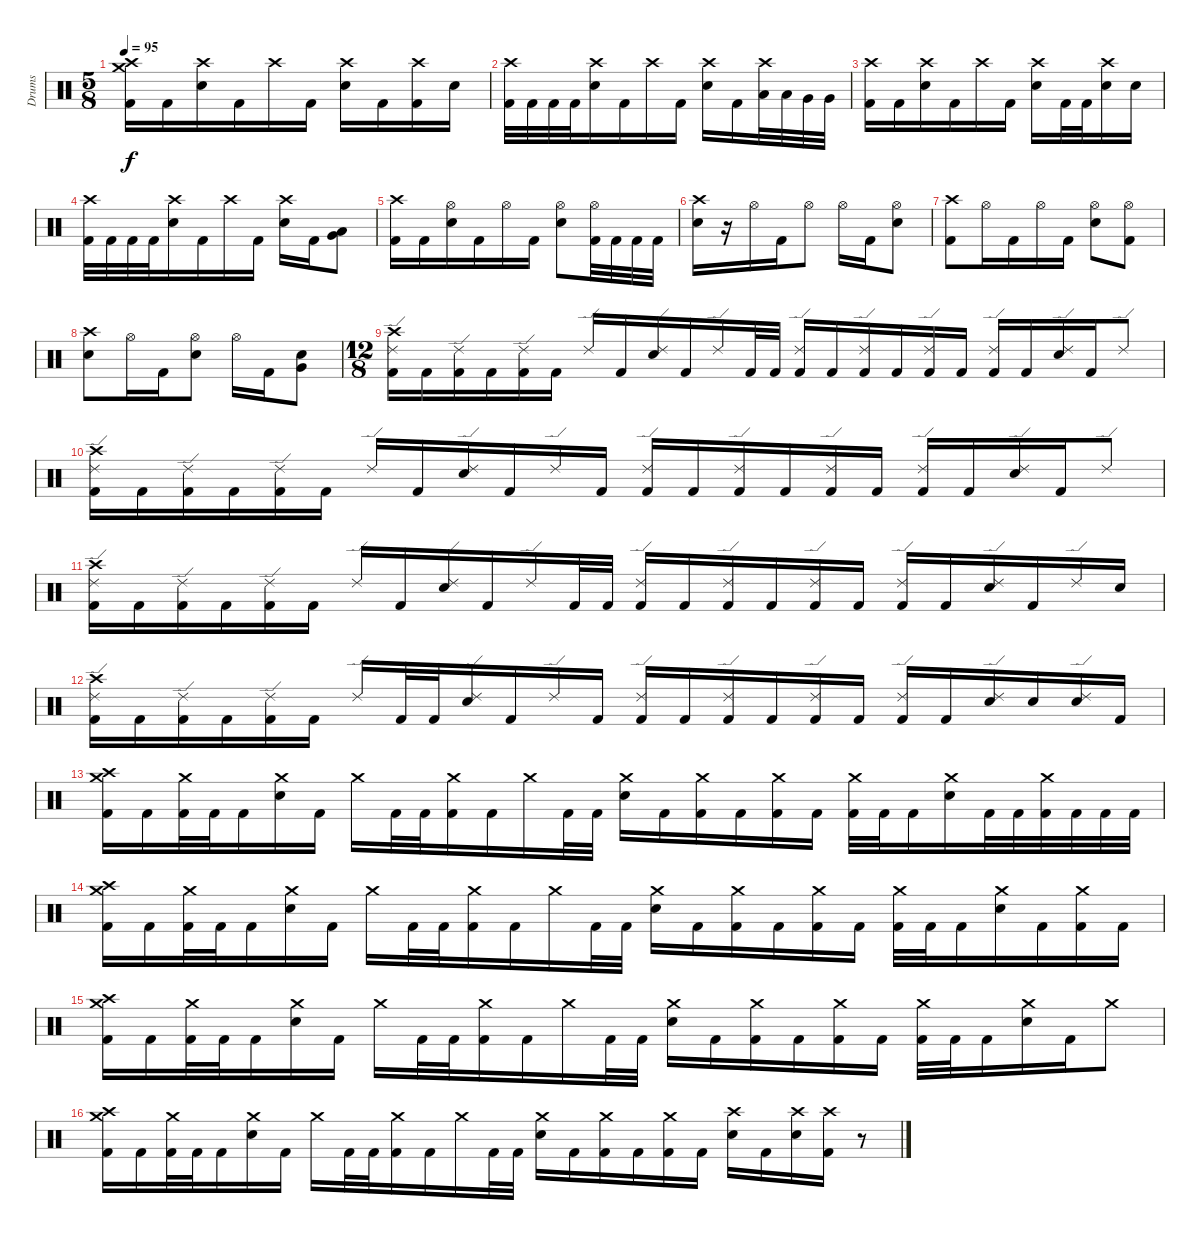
\track ("Drums" "Drums") {instrument percussion}
\staff {score}
\articulation defaults
\ts (5 8)
\tempo 95
\clef neutral
\ks c
("Crash medium (hit)" "Crash high (hit)" "Kick (hit) 2").16{dy f} "Kick (hit) 2".16 ("Crash high (hit)" "Snare (hit) 2").16 "Kick (hit) 2".16 "Crash high (hit)".16 "Kick (hit) 2".16 ("Crash high (hit)" "Snare (hit) 2").16 "Kick (hit) 2".16 ("Crash high (hit)" "Kick (hit) 2").16 "Snare (hit) 2".16 |
("Crash high (hit)" "Kick (hit) 2").32 "Kick (hit) 2".32 "Kick (hit) 2".32 "Kick (hit) 2".32 ("Crash high (hit)" "Snare (hit) 2").16 "Kick (hit) 2".16 "Crash high (hit)".16 "Kick (hit) 2".16 ("Crash high (hit)" "Snare (hit) 2").16 "Kick (hit) 2".16 ("Crash high (hit)" "Low Tom (hit)").32 "Low Tom (hit)".32 "Very Low Tom (hit)".32 "Very Low Tom (hit)".32 |
("Crash high (hit)" "Kick (hit) 2").16 "Kick (hit) 2".16 ("Crash high (hit)" "Snare (hit) 2").16 "Kick (hit) 2".16 "Crash high (hit)".16 "Kick (hit) 2".16 ("Crash high (hit)" "Snare (hit) 2").16 "Kick (hit) 2".32 "Kick (hit) 2".32 ("Crash high (hit)" "Snare (hit) 2").16 "Snare (hit) 2".16 |
("Crash high (hit)" "Kick (hit) 2").32 "Kick (hit) 2".32 "Kick (hit) 2".32 "Kick (hit) 2".32 ("Crash high (hit)" "Snare (hit) 2").16 "Kick (hit) 2".16 "Crash high (hit)".16 "Kick (hit) 2".16 ("Crash high (hit)" "Snare (hit) 2").16 "Kick (hit) 2".16 ("Low Tom (hit)" "Very Low Tom (hit)").8 |
("Crash high (hit)" "Kick (hit) 2").16 "Kick (hit) 2".16 ("Hi-Hat (open)" "Snare (hit) 2").16 "Kick (hit) 2".16 "Hi-Hat (open)".16 "Kick (hit) 2".16 ("Hi-Hat (open)" "Snare (hit) 2").8 ("Hi-Hat (open)" "Kick (hit) 2").32 "Kick (hit) 2".32 "Kick (hit) 2".32 "Kick (hit) 2".32 |
("Crash high (hit)" "Snare (hit) 2").16 r.16 "Hi-Hat (open)".16 "Kick (hit) 2".16 "Hi-Hat (open)".8 "Hi-Hat (open)".16 "Kick (hit) 2".16 ("Hi-Hat (open)" "Snare (hit) 2").8 |
("Crash high (hit)" "Kick (hit) 2").8 "Hi-Hat (open)".16 "Kick (hit) 2".16 "Hi-Hat (open)".16 "Kick (hit) 2".16 ("Hi-Hat (open)" "Snare (hit) 2").8 ("Hi-Hat (open)" "Kick (hit) 2").8 |
("Crash high (hit)" "Snare (hit) 2").8 "Hi-Hat (open)".16 "Kick (hit) 2".16 ("Hi-Hat (open)" "Snare (hit) 2").8 "Hi-Hat (open)".16 "Kick (hit) 2".16 ("Very Low Tom (hit)" "Snare (hit) 2").8 |
\ts (12 8)
("Crash high (hit)" "Ride (edge) 2" "Kick (hit) 2").16 "Kick (hit) 2".16 ("Ride (edge) 2" "Kick (hit) 2").16 "Kick (hit) 2".16 ("Ride (edge) 2" "Kick (hit) 2").16 "Kick (hit) 2".16 "Ride (edge) 2".16 "Kick (hit) 2".16 ("Ride (edge) 2" "Snare (hit) 2").16 "Kick (hit) 2".16 "Ride (edge) 2".16 "Kick (hit) 2".32 "Kick (hit) 2".32 ("Ride (edge) 2" "Kick (hit) 2").16 "Kick (hit) 2".16 ("Ride (edge) 2" "Kick (hit) 2").16 "Kick (hit) 2".16 ("Ride (edge) 2" "Kick (hit) 2").16 "Kick (hit) 2".16 ("Ride (edge) 2" "Kick (hit) 2").16 "Kick (hit) 2".16 ("Ride (edge) 2" "Snare (hit) 2").16 "Kick (hit) 2".16 "Ride (edge) 2".8 |
("Crash high (hit)" "Ride (edge) 2" "Kick (hit) 2").16 "Kick (hit) 2".16 ("Ride (edge) 2" "Kick (hit) 2").16 "Kick (hit) 2".16 ("Ride (edge) 2" "Kick (hit) 2").16 "Kick (hit) 2".16 "Ride (edge) 2".16 "Kick (hit) 2".16 ("Ride (edge) 2" "Snare (hit) 2").16 "Kick (hit) 2".16 "Ride (edge) 2".16 "Kick (hit) 2".16 ("Ride (edge) 2" "Kick (hit) 2").16 "Kick (hit) 2".16 ("Ride (edge) 2" "Kick (hit) 2").16 "Kick (hit) 2".16 ("Ride (edge) 2" "Kick (hit) 2").16 "Kick (hit) 2".16 ("Ride (edge) 2" "Kick (hit) 2").16 "Kick (hit) 2".16 ("Ride (edge) 2" "Snare (hit) 2").16 "Kick (hit) 2".16 "Ride (edge) 2".8 |
("Crash high (hit)" "Ride (edge) 2" "Kick (hit) 2").16 "Kick (hit) 2".16 ("Ride (edge) 2" "Kick (hit) 2").16 "Kick (hit) 2".16 ("Ride (edge) 2" "Kick (hit) 2").16 "Kick (hit) 2".16 "Ride (edge) 2".16 "Kick (hit) 2".16 ("Ride (edge) 2" "Snare (hit) 2").16 "Kick (hit) 2".16 "Ride (edge) 2".16 "Kick (hit) 2".32 "Kick (hit) 2".32 ("Ride (edge) 2" "Kick (hit) 2").16 "Kick (hit) 2".16 ("Ride (edge) 2" "Kick (hit) 2").16 "Kick (hit) 2".16 ("Ride (edge) 2" "Kick (hit) 2").16 "Kick (hit) 2".16 ("Ride (edge) 2" "Kick (hit) 2").16 "Kick (hit) 2".16 ("Ride (edge) 2" "Snare (hit) 2").16 "Kick (hit) 2".16 "Ride (edge) 2".16 "Snare (hit) 2".16 |
("Crash high (hit)" "Ride (edge) 2" "Kick (hit) 2").16 "Kick (hit) 2".16 ("Ride (edge) 2" "Kick (hit) 2").16 "Kick (hit) 2".16 ("Ride (edge) 2" "Kick (hit) 2").16 "Kick (hit) 2".16 "Ride (edge) 2".16 "Kick (hit) 2".32 "Kick (hit) 2".32 ("Ride (edge) 2" "Snare (hit) 2").16 "Kick (hit) 2".16 "Ride (edge) 2".16 "Kick (hit) 2".16 ("Ride (edge) 2" "Kick (hit) 2").16 "Kick (hit) 2".16 ("Ride (edge) 2" "Kick (hit) 2").16 "Kick (hit) 2".16 ("Ride (edge) 2" "Kick (hit) 2").16 "Kick (hit) 2".16 ("Ride (edge) 2" "Kick (hit) 2").16 "Kick (hit) 2".16 ("Ride (edge) 2" "Snare (hit) 2").16 "Snare (hit) 2".16 ("Ride (edge) 2" "Snare (hit) 2").16 "Kick (hit) 2".16 |
("Crash high (hit)" "Crash medium (hit)" "Kick (hit) 2").16 "Kick (hit) 2".16 ("Crash medium (hit)" "Kick (hit) 2").32 "Kick (hit) 2".32 "Kick (hit) 2".16 ("Crash medium (hit)" "Snare (hit) 2").16 "Kick (hit) 2".16 "Crash medium (hit)".16 "Kick (hit) 2".32 "Kick (hit) 2".32 ("Crash medium (hit)" "Kick (hit) 2").16 "Kick (hit) 2".16 "Crash medium (hit)".16 "Kick (hit) 2".32 "Kick (hit) 2".32 ("Crash medium (hit)" "Snare (hit) 2").16 "Kick (hit) 2".16 ("Crash medium (hit)" "Kick (hit) 2").16 "Kick (hit) 2".16 ("Crash medium (hit)" "Kick (hit) 2").16 "Kick (hit) 2".16 ("Crash medium (hit)" "Kick (hit) 2").32 "Kick (hit) 2".32 "Kick (hit) 2".16 ("Crash medium (hit)" "Snare (hit) 2").16 "Kick (hit) 2".32 "Kick (hit) 2".32 ("Crash medium (hit)" "Kick (hit) 2").32 "Kick (hit) 2".32 "Kick (hit) 2".32 "Kick (hit) 2".32 |
("Crash high (hit)" "Crash medium (hit)" "Kick (hit) 2").16 "Kick (hit) 2".16 ("Crash medium (hit)" "Kick (hit) 2").32 "Kick (hit) 2".32 "Kick (hit) 2".16 ("Crash medium (hit)" "Snare (hit) 2").16 "Kick (hit) 2".16 "Crash medium (hit)".16 "Kick (hit) 2".32 "Kick (hit) 2".32 ("Crash medium (hit)" "Kick (hit) 2").16 "Kick (hit) 2".16 "Crash medium (hit)".16 "Kick (hit) 2".32 "Kick (hit) 2".32 ("Crash medium (hit)" "Snare (hit) 2").16 "Kick (hit) 2".16 ("Crash medium (hit)" "Kick (hit) 2").16 "Kick (hit) 2".16 ("Crash medium (hit)" "Kick (hit) 2").16 "Kick (hit) 2".16 ("Crash medium (hit)" "Kick (hit) 2").32 "Kick (hit) 2".32 "Kick (hit) 2".16 ("Crash medium (hit)" "Snare (hit) 2").16 "Kick (hit) 2".16 ("Crash medium (hit)" "Kick (hit) 2").16 "Kick (hit) 2".16 |
("Crash high (hit)" "Crash medium (hit)" "Kick (hit) 2").16 "Kick (hit) 2".16 ("Crash medium (hit)" "Kick (hit) 2").32 "Kick (hit) 2".32 "Kick (hit) 2".16 ("Crash medium (hit)" "Snare (hit) 2").16 "Kick (hit) 2".16 "Crash medium (hit)".16 "Kick (hit) 2".32 "Kick (hit) 2".32 ("Crash medium (hit)" "Kick (hit) 2").16 "Kick (hit) 2".16 "Crash medium (hit)".16 "Kick (hit) 2".32 "Kick (hit) 2".32 ("Crash medium (hit)" "Snare (hit) 2").16 "Kick (hit) 2".16 ("Crash medium (hit)" "Kick (hit) 2").16 "Kick (hit) 2".16 ("Crash medium (hit)" "Kick (hit) 2").16 "Kick (hit) 2".16 ("Crash medium (hit)" "Kick (hit) 2").32 "Kick (hit) 2".32 "Kick (hit) 2".16 ("Crash medium (hit)" "Snare (hit) 2").16 "Kick (hit) 2".16 "Crash medium (hit)".8 |
("Crash high (hit)" "Crash medium (hit)" "Kick (hit) 2").16 "Kick (hit) 2".16 ("Crash medium (hit)" "Kick (hit) 2").32 "Kick (hit) 2".32 "Kick (hit) 2".16 ("Crash medium (hit)" "Snare (hit) 2").16 "Kick (hit) 2".16 "Crash medium (hit)".16 "Kick (hit) 2".32 "Kick (hit) 2".32 ("Crash medium (hit)" "Kick (hit) 2").16 "Kick (hit) 2".16 "Crash medium (hit)".16 "Kick (hit) 2".32 "Kick (hit) 2".32 ("Crash medium (hit)" "Snare (hit) 2").16 "Kick (hit) 2".16 ("Crash medium (hit)" "Kick (hit) 2").16 "Kick (hit) 2".16 ("Crash medium (hit)" "Kick (hit) 2").16 "Kick (hit) 2".16 ("Crash high (hit)" "Snare (hit) 2").16 "Kick (hit) 2".16 ("Crash high (hit)" "Snare (hit) 2").16 ("Crash high (hit)" "Kick (hit) 2").16 r.8
